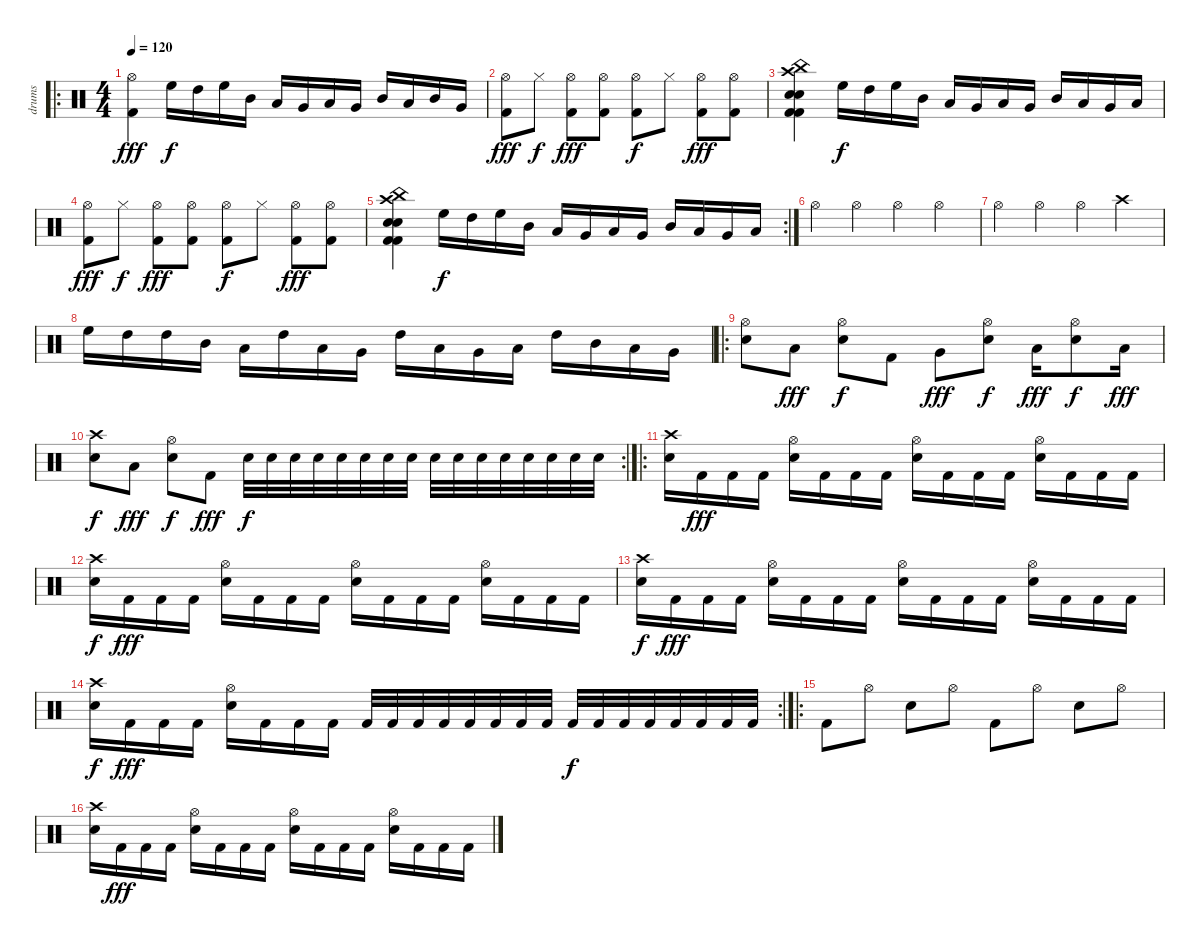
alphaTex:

\track ("drums" "drums") {instrument percussion}
\staff {score}
\articulation defaults
\ro
\ts (4 4)
\tempo 120
\clef neutral
\ks c
("Hi-Hat (open)" "Kick (hit) 2").4{dy fff} "High Floor Tom (hit)".16{dy f} "High Tom (hit)".16 "High Floor Tom (hit)".16 "Mid Tom (hit)".16 "Low Tom (hit)".16 "Very Low Tom (hit)".16 "Low Tom (hit)".16 "Very Low Tom (hit)".16 "Mid Tom (hit)".16 "Low Tom (hit)".16 "Mid Tom (hit)".16 "Very Low Tom (hit)".16 |
("Hi-Hat (open)" "Kick (hit) 2").8{dy fff} "Hi-Hat (closed)".8{dy f} ("Hi-Hat (open)" "Kick (hit) 2").8{dy fff} ("Hi-Hat (open)" "Kick (hit) 2").8 ("Hi-Hat (open)" "Kick (hit) 2").8{dy f} "Hi-Hat (closed)".8 ("Hi-Hat (open)" "Kick (hit) 2").8{dy fff} ("Hi-Hat (open)" "Kick (hit) 2").8 |
("Kick (hit) 2" "Electric Snare (hit)" "Kick (hit) 2" "China (hit)" "Crash high (hit)" "Electric Snare (hit)").4 "High Floor Tom (hit)".16{dy f} "High Tom (hit)".16 "High Floor Tom (hit)".16 "Mid Tom (hit)".16 "Low Tom (hit)".16 "Very Low Tom (hit)".16 "Low Tom (hit)".16 "Very Low Tom (hit)".16 "Mid Tom (hit)".16 "Low Tom (hit)".16 "Very Low Tom (hit)".16 "Low Floor Tom (hit)".16 |
("Hi-Hat (open)" "Kick (hit) 2").8{dy fff} "Hi-Hat (closed)".8{dy f} ("Hi-Hat (open)" "Kick (hit) 2").8{dy fff} ("Hi-Hat (open)" "Kick (hit) 2").8 ("Hi-Hat (open)" "Kick (hit) 2").8{dy f} "Hi-Hat (closed)".8 ("Hi-Hat (open)" "Kick (hit) 2").8{dy fff} ("Hi-Hat (open)" "Kick (hit) 2").8 |
\rc 2
("Kick (hit) 2" "Electric Snare (hit)" "Kick (hit) 2" "China (hit)" "Crash high (hit)" "Electric Snare (hit)").4 "High Floor Tom (hit)".16{dy f} "High Tom (hit)".16 "High Floor Tom (hit)".16 "Mid Tom (hit)".16 "Low Tom (hit)".16 "Very Low Tom (hit)".16 "Low Tom (hit)".16 "Very Low Tom (hit)".16 "Mid Tom (hit)".16 "Low Tom (hit)".16 "Very Low Tom (hit)".16 "Low Floor Tom (hit)".16 |
"Hi-Hat (open)".4 "Hi-Hat (open)".4 "Hi-Hat (open)".4 "Hi-Hat (open)".4 |
"Hi-Hat (open)".4 "Hi-Hat (open)".4 "Hi-Hat (open)".4 "Crash high (hit)".4 |
"High Floor Tom (hit)".16 "High Tom (hit)".16 "High Tom (hit)".16 "Mid Tom (hit)".16 "Low Tom (hit)".16 "High Tom (hit)".16 "Low Tom (hit)".16 "Very Low Tom (hit)".16 "High Tom (hit)".16 "Low Tom (hit)".16 "Very Low Tom (hit)".16 "Low Floor Tom (hit)".16 "High Tom (hit)".16 "Mid Tom (hit)".16 "Low Tom (hit)".16 "Very Low Tom (hit)".16 |
\ro
("Hi-Hat (open)" "Electric Snare (hit)").8 "Low Tom (hit)".8{dy fff} ("Hi-Hat (open)" "Electric Snare (hit)").8{dy f} "Kick (hit) 2".8 "Very Low Tom (hit)".8{dy fff} ("Hi-Hat (open)" "Electric Snare (hit)").8{dy f} "Low Tom (hit)".16{dy fff} ("Hi-Hat (open)" "Electric Snare (hit)").8{dy f} "Low Tom (hit)".16{dy fff} |
\rc 2
("Crash high (hit)" "Electric Snare (hit)").8{dy f} "Low Tom (hit)".8{dy fff} ("Hi-Hat (open)" "Electric Snare (hit)").8{dy f} "Kick (hit) 2".8{dy fff} "Electric Snare (hit)".32{dy f} "Electric Snare (hit)".32 "Electric Snare (hit)".32 "Electric Snare (hit)".32 "Electric Snare (hit)".32 "Electric Snare (hit)".32 "Electric Snare (hit)".32 "Electric Snare (hit)".32 "Electric Snare (hit)".32 "Electric Snare (hit)".32 "Electric Snare (hit)".32 "Electric Snare (hit)".32 "Electric Snare (hit)".32 "Electric Snare (hit)".32 "Electric Snare (hit)".32 "Electric Snare (hit)".32 |
\ro
("Crash high (hit)" "Electric Snare (hit)").16 "Kick (hit) 2".16{dy fff} "Kick (hit) 2".16 "Kick (hit) 2".16 ("Hi-Hat (open)" "Electric Snare (hit)").16 "Kick (hit) 2".16 "Kick (hit) 2".16 "Kick (hit) 2".16 ("Hi-Hat (open)" "Electric Snare (hit)").16 "Kick (hit) 2".16 "Kick (hit) 2".16 "Kick (hit) 2".16 ("Hi-Hat (open)" "Electric Snare (hit)").16 "Kick (hit) 2".16 "Kick (hit) 2".16 "Kick (hit) 2".16 |
("Crash high (hit)" "Electric Snare (hit)").16{dy f} "Kick (hit) 2".16{dy fff} "Kick (hit) 2".16 "Kick (hit) 2".16 ("Hi-Hat (open)" "Electric Snare (hit)").16 "Kick (hit) 2".16 "Kick (hit) 2".16 "Kick (hit) 2".16 ("Hi-Hat (open)" "Electric Snare (hit)").16 "Kick (hit) 2".16 "Kick (hit) 2".16 "Kick (hit) 2".16 ("Hi-Hat (open)" "Electric Snare (hit)").16 "Kick (hit) 2".16 "Kick (hit) 2".16 "Kick (hit) 2".16 |
("Crash high (hit)" "Electric Snare (hit)").16{dy f} "Kick (hit) 2".16{dy fff} "Kick (hit) 2".16 "Kick (hit) 2".16 ("Hi-Hat (open)" "Electric Snare (hit)").16 "Kick (hit) 2".16 "Kick (hit) 2".16 "Kick (hit) 2".16 ("Hi-Hat (open)" "Electric Snare (hit)").16 "Kick (hit) 2".16 "Kick (hit) 2".16 "Kick (hit) 2".16 ("Hi-Hat (open)" "Electric Snare (hit)").16 "Kick (hit) 2".16 "Kick (hit) 2".16 "Kick (hit) 2".16 |
\rc 2
("Crash high (hit)" "Electric Snare (hit)").16{dy f} "Kick (hit) 2".16{dy fff} "Kick (hit) 2".16 "Kick (hit) 2".16 ("Hi-Hat (open)" "Electric Snare (hit)").16 "Kick (hit) 2".16 "Kick (hit) 2".16 "Kick (hit) 2".16 "Kick (hit) 2".32 "Kick (hit) 2".32 "Kick (hit) 2".32 "Kick (hit) 2".32 "Kick (hit) 2".32 "Kick (hit) 2".32 "Kick (hit) 2".32 "Kick (hit) 2".32 "Kick (hit) 2".32{dy f} "Kick (hit) 2".32 "Kick (hit) 2".32 "Kick (hit) 2".32 "Kick (hit) 2".32 "Kick (hit) 2".32 "Kick (hit) 2".32 "Kick (hit) 2".32 |
\ro "Kick (hit) 2".8 "Hi-Hat (open)".8 "Snare (hit) 2".8 "Hi-Hat (open)".8 "Kick (hit) 2".8 "Hi-Hat (open)".8 "Snare (hit) 2".8 "Hi-Hat (open)".8
|
("Crash high (hit)" "Electric Snare (hit)").16 "Kick (hit) 2".16{dy fff} "Kick (hit) 2".16 "Kick (hit) 2".16 ("Hi-Hat (open)" "Electric Snare (hit)").16 "Kick (hit) 2".16 "Kick (hit) 2".16 "Kick (hit) 2".16 ("Hi-Hat (open)" "Electric Snare (hit)").16 "Kick (hit) 2".16 "Kick (hit) 2".16 "Kick (hit) 2".16 ("Hi-Hat (open)" "Electric Snare (hit)").16 "Kick (hit) 2".16 "Kick (hit) 2".16 "Kick (hit) 2".16
